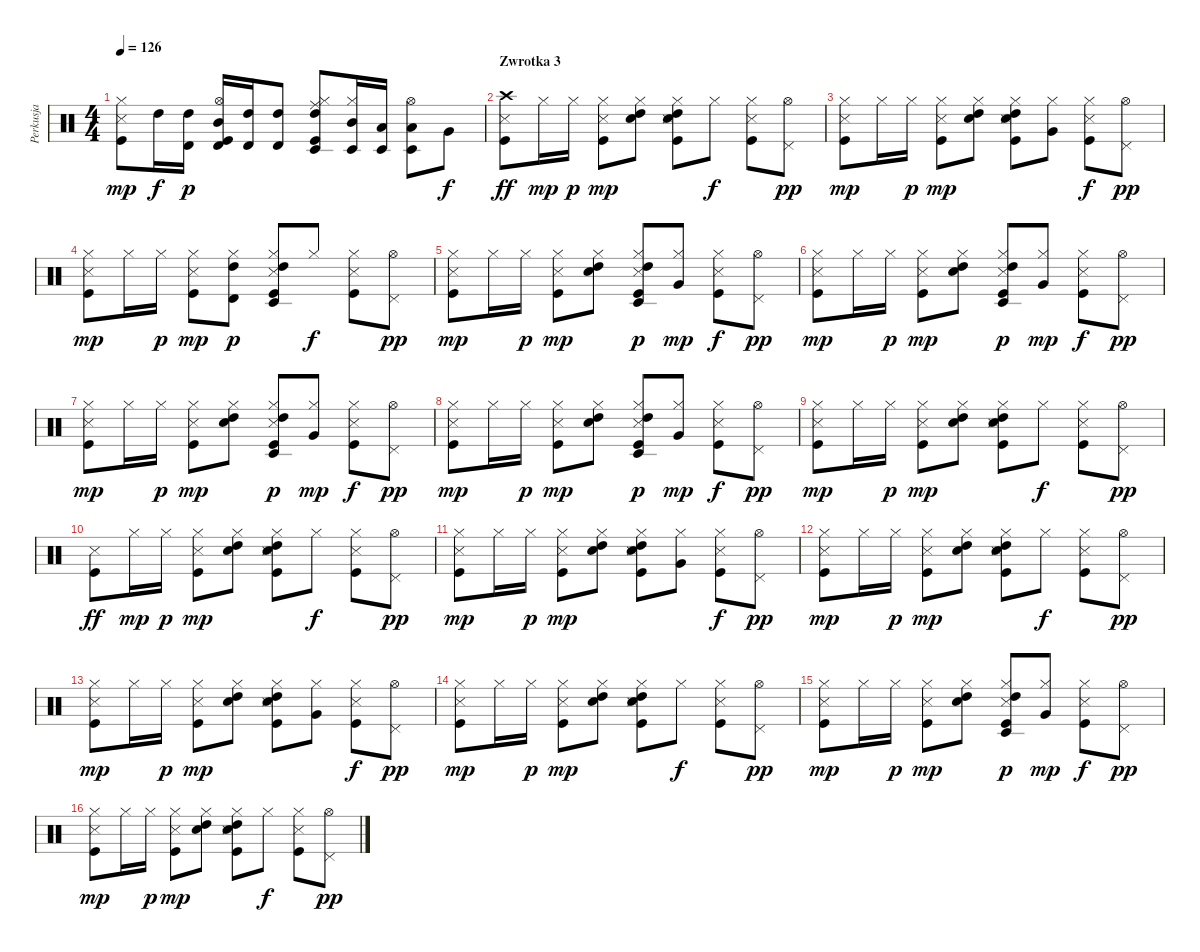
\track ("Perkusja" "Perkusja") {instrument percussion}
\staff {score}
\articulation defaults
\ts (4 4)
\tempo 126
\clef neutral
\ks c
("Hi-Hat (closed)" "Kick (hit)" "Snare (side stick) 3").8{dy mp} "High Tom (hit)".16{dy f} ("High Tom (hit)" "Timbale high (hit)").16{dy p} ("Hi-Hat (open)" "Kick (hit)" "Mid Tom (hit)" "Timbale high (hit)").16 ("High Tom (hit)" "Timbale high (hit)").16 ("High Tom (hit)" "Timbale high (hit)").8 ("Hi-Hat (closed)" "Ride (middle)" "Kick (hit)" "High Tom (hit)" "Timbale low (hit)").8 ("Hi-Hat (closed)" "Mid Tom (hit)" "Timbale low (hit)").16 ("Low Tom (hit)" "Timbale low (hit)").16 ("Hi-Hat (open)" "Low Tom (hit)" "Timbale low (hit)").8 "Very Low Tom (hit)".8{dy f} |
\section ("" "Zwrotka 3")
("Kick (hit)" "Crash high (hit)" "Snare (side stick) 3").8{dy ff} "Hi-Hat (closed)".16{dy mp} "Hi-Hat (closed)".16{dy p} ("Hi-Hat (closed)" "Kick (hit)" "Snare (side stick) 3").8{dy mp} ("Hi-Hat (closed)" "High Tom (hit)" "Electric Snare (hit)").8 ("Hi-Hat (closed)" "Kick (hit)" "High Tom (hit)" "Electric Snare (hit)" "Snare (side stick) 3").8 "Hi-Hat (closed)".8{dy f} ("Hi-Hat (closed)" "Kick (hit)" "Snare (side stick) 3").8 ("Hi-Hat (open)" "Pedal Hi-Hat (hit)").8{dy pp} |
("Hi-Hat (closed)" "Kick (hit)" "Snare (side stick) 3").8{dy mp} "Hi-Hat (closed)".16 "Hi-Hat (closed)".16{dy p} ("Hi-Hat (closed)" "Kick (hit)" "Snare (side stick) 3").8{dy mp} ("Hi-Hat (closed)" "High Tom (hit)" "Electric Snare (hit)").8 ("Hi-Hat (closed)" "Kick (hit)" "High Tom (hit)" "Electric Snare (hit)" "Snare (side stick) 3").8 ("Hi-Hat (closed)" "Very Low Tom (hit)").8 ("Hi-Hat (closed)" "Kick (hit)" "Snare (side stick) 3").8{dy f} ("Hi-Hat (open)" "Pedal Hi-Hat (hit)").8{dy pp} |
("Hi-Hat (closed)" "Kick (hit)" "Snare (side stick) 3").8{dy mp} "Hi-Hat (closed)".16 "Hi-Hat (closed)".16{dy p} ("Hi-Hat (closed)" "Kick (hit)" "Snare (side stick) 3").8{dy mp} ("Hi-Hat (closed)" "High Tom (hit)" "Timbale high (hit)").8{dy p} ("Hi-Hat (closed)" "Kick (hit)" "High Tom (hit)" "Timbale low (hit)" "Snare (side stick) 3").8 "Hi-Hat (closed)".8{dy f} ("Hi-Hat (closed)" "Kick (hit)" "Snare (side stick) 3").8 ("Hi-Hat (open)" "Pedal Hi-Hat (hit)").8{dy pp} |
("Hi-Hat (closed)" "Kick (hit)" "Snare (side stick) 3").8{dy mp} "Hi-Hat (closed)".16 "Hi-Hat (closed)".16{dy p} ("Hi-Hat (closed)" "Kick (hit)" "Snare (side stick) 3").8{dy mp} ("Hi-Hat (closed)" "High Tom (hit)" "Electric Snare (hit)").8 ("Hi-Hat (closed)" "Kick (hit)" "High Tom (hit)" "Timbale low (hit)" "Snare (side stick) 3").8{dy p} ("Hi-Hat (closed)" "Very Low Tom (hit)").8{dy mp} ("Hi-Hat (closed)" "Kick (hit)" "Snare (side stick) 3").8{dy f} ("Hi-Hat (open)" "Pedal Hi-Hat (hit)").8{dy pp} |
("Hi-Hat (closed)" "Kick (hit)" "Snare (side stick) 3").8{dy mp} "Hi-Hat (closed)".16 "Hi-Hat (closed)".16{dy p} ("Hi-Hat (closed)" "Kick (hit)" "Snare (side stick) 3").8{dy mp} ("Hi-Hat (closed)" "High Tom (hit)" "Electric Snare (hit)").8 ("Hi-Hat (closed)" "Kick (hit)" "High Tom (hit)" "Timbale low (hit)" "Snare (side stick) 3").8{dy p} ("Hi-Hat (closed)" "Very Low Tom (hit)").8{dy mp} ("Hi-Hat (closed)" "Kick (hit)" "Snare (side stick) 3").8{dy f} ("Hi-Hat (open)" "Pedal Hi-Hat (hit)").8{dy pp} |
("Hi-Hat (closed)" "Kick (hit)" "Snare (side stick) 3").8{dy mp} "Hi-Hat (closed)".16 "Hi-Hat (closed)".16{dy p} ("Hi-Hat (closed)" "Kick (hit)" "Snare (side stick) 3").8{dy mp} ("Hi-Hat (closed)" "High Tom (hit)" "Electric Snare (hit)").8 ("Hi-Hat (closed)" "Kick (hit)" "High Tom (hit)" "Timbale low (hit)" "Snare (side stick) 3").8{dy p} ("Hi-Hat (closed)" "Very Low Tom (hit)").8{dy mp} ("Hi-Hat (closed)" "Kick (hit)" "Snare (side stick) 3").8{dy f} ("Hi-Hat (open)" "Pedal Hi-Hat (hit)").8{dy pp} |
("Hi-Hat (closed)" "Kick (hit)" "Snare (side stick) 3").8{dy mp} "Hi-Hat (closed)".16 "Hi-Hat (closed)".16{dy p} ("Hi-Hat (closed)" "Kick (hit)" "Snare (side stick) 3").8{dy mp} ("Hi-Hat (closed)" "High Tom (hit)" "Electric Snare (hit)").8 ("Hi-Hat (closed)" "Kick (hit)" "High Tom (hit)" "Timbale low (hit)" "Snare (side stick) 3").8{dy p} ("Hi-Hat (closed)" "Very Low Tom (hit)").8{dy mp} ("Hi-Hat (closed)" "Kick (hit)" "Snare (side stick) 3").8{dy f} ("Hi-Hat (open)" "Pedal Hi-Hat (hit)").8{dy pp} |
("Hi-Hat (closed)" "Kick (hit)" "Snare (side stick) 3").8{dy mp} "Hi-Hat (closed)".16 "Hi-Hat (closed)".16{dy p} ("Hi-Hat (closed)" "Kick (hit)" "Snare (side stick) 3").8{dy mp} ("Hi-Hat (closed)" "High Tom (hit)" "Electric Snare (hit)").8 ("Hi-Hat (closed)" "Kick (hit)" "High Tom (hit)" "Electric Snare (hit)" "Snare (side stick) 3").8 "Hi-Hat (closed)".8{dy f} ("Hi-Hat (closed)" "Kick (hit)" "Snare (side stick) 3").8 ("Hi-Hat (open)" "Pedal Hi-Hat (hit)").8{dy pp} |
("Kick (hit)" "Snare (side stick) 3").8{dy ff} "Hi-Hat (closed)".16{dy mp} "Hi-Hat (closed)".16{dy p} ("Hi-Hat (closed)" "Kick (hit)" "Snare (side stick) 3").8{dy mp} ("Hi-Hat (closed)" "High Tom (hit)" "Electric Snare (hit)").8 ("Hi-Hat (closed)" "Kick (hit)" "High Tom (hit)" "Electric Snare (hit)" "Snare (side stick) 3").8 "Hi-Hat (closed)".8{dy f} ("Hi-Hat (closed)" "Kick (hit)" "Snare (side stick) 3").8 ("Hi-Hat (open)" "Pedal Hi-Hat (hit)").8{dy pp} |
("Hi-Hat (closed)" "Kick (hit)" "Snare (side stick) 3").8{dy mp} "Hi-Hat (closed)".16 "Hi-Hat (closed)".16{dy p} ("Hi-Hat (closed)" "Kick (hit)" "Snare (side stick) 3").8{dy mp} ("Hi-Hat (closed)" "High Tom (hit)" "Electric Snare (hit)").8 ("Hi-Hat (closed)" "Kick (hit)" "High Tom (hit)" "Electric Snare (hit)" "Snare (side stick) 3").8 ("Hi-Hat (closed)" "Very Low Tom (hit)").8 ("Hi-Hat (closed)" "Kick (hit)" "Snare (side stick) 3").8{dy f} ("Hi-Hat (open)" "Pedal Hi-Hat (hit)").8{dy pp} |
("Hi-Hat (closed)" "Kick (hit)" "Snare (side stick) 3").8{dy mp} "Hi-Hat (closed)".16 "Hi-Hat (closed)".16{dy p} ("Hi-Hat (closed)" "Kick (hit)" "Snare (side stick) 3").8{dy mp} ("Hi-Hat (closed)" "High Tom (hit)" "Electric Snare (hit)").8 ("Hi-Hat (closed)" "Kick (hit)" "High Tom (hit)" "Electric Snare (hit)" "Snare (side stick) 3").8 "Hi-Hat (closed)".8{dy f} ("Hi-Hat (closed)" "Kick (hit)" "Snare (side stick) 3").8 ("Hi-Hat (open)" "Pedal Hi-Hat (hit)").8{dy pp} |
("Hi-Hat (closed)" "Kick (hit)" "Snare (side stick) 3").8{dy mp} "Hi-Hat (closed)".16 "Hi-Hat (closed)".16{dy p} ("Hi-Hat (closed)" "Kick (hit)" "Snare (side stick) 3").8{dy mp} ("Hi-Hat (closed)" "High Tom (hit)" "Electric Snare (hit)").8 ("Hi-Hat (closed)" "Kick (hit)" "High Tom (hit)" "Electric Snare (hit)" "Snare (side stick) 3").8 ("Hi-Hat (closed)" "Very Low Tom (hit)").8 ("Hi-Hat (closed)" "Kick (hit)" "Snare (side stick) 3").8{dy f} ("Hi-Hat (open)" "Pedal Hi-Hat (hit)").8{dy pp} |
("Hi-Hat (closed)" "Kick (hit)" "Snare (side stick) 3").8{dy mp} "Hi-Hat (closed)".16 "Hi-Hat (closed)".16{dy p} ("Hi-Hat (closed)" "Kick (hit)" "Snare (side stick) 3").8{dy mp} ("Hi-Hat (closed)" "High Tom (hit)" "Electric Snare (hit)").8 ("Hi-Hat (closed)" "Kick (hit)" "High Tom (hit)" "Electric Snare (hit)" "Snare (side stick) 3").8 "Hi-Hat (closed)".8{dy f} ("Hi-Hat (closed)" "Kick (hit)" "Snare (side stick) 3").8 ("Hi-Hat (open)" "Pedal Hi-Hat (hit)").8{dy pp} |
("Hi-Hat (closed)" "Kick (hit)" "Snare (side stick) 3").8{dy mp} "Hi-Hat (closed)".16 "Hi-Hat (closed)".16{dy p} ("Hi-Hat (closed)" "Kick (hit)" "Snare (side stick) 3").8{dy mp} ("Hi-Hat (closed)" "High Tom (hit)" "Electric Snare (hit)").8 ("Hi-Hat (closed)" "Kick (hit)" "High Tom (hit)" "Timbale low (hit)" "Snare (side stick) 3").8{dy p} ("Hi-Hat (closed)" "Very Low Tom (hit)").8{dy mp} ("Hi-Hat (closed)" "Kick (hit)" "Snare (side stick) 3").8{dy f} ("Hi-Hat (open)" "Pedal Hi-Hat (hit)").8{dy pp} |
("Hi-Hat (closed)" "Kick (hit)" "Snare (side stick) 3").8{dy mp} "Hi-Hat (closed)".16 "Hi-Hat (closed)".16{dy p} ("Hi-Hat (closed)" "Kick (hit)" "Snare (side stick) 3").8{dy mp} ("Hi-Hat (closed)" "High Tom (hit)" "Electric Snare (hit)").8 ("Hi-Hat (closed)" "Kick (hit)" "High Tom (hit)" "Electric Snare (hit)" "Snare (side stick) 3").8 "Hi-Hat (closed)".8{dy f} ("Hi-Hat (closed)" "Kick (hit)" "Snare (side stick) 3").8 ("Hi-Hat (open)" "Pedal Hi-Hat (hit)").8{dy pp}
